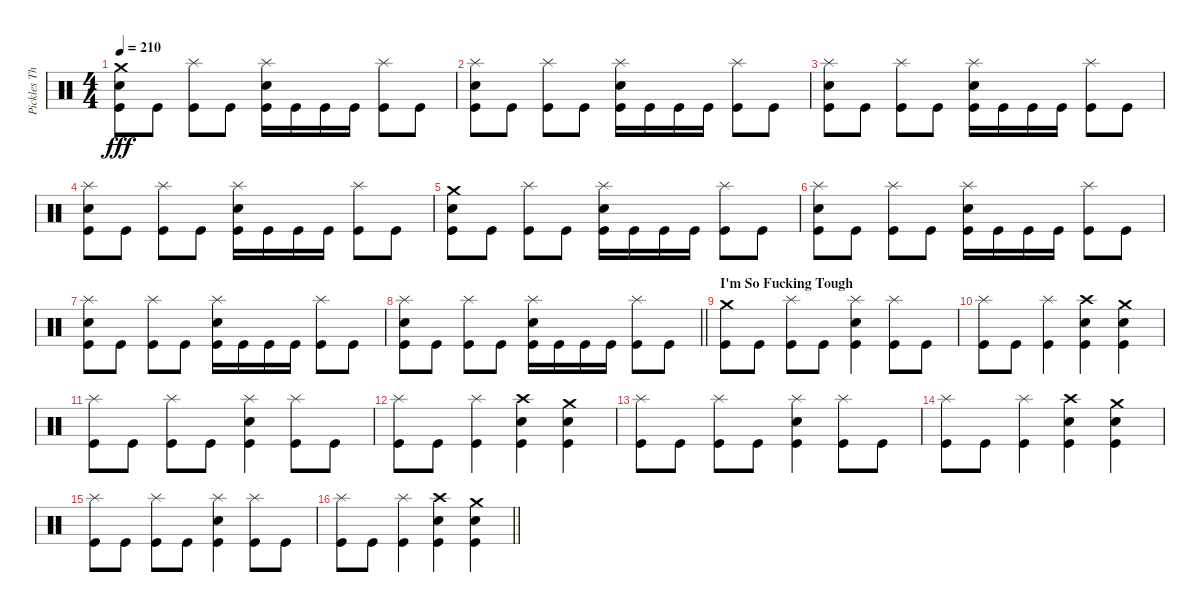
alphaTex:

\track ("Pickles The Drummer (Drums)" "Pickles Th") {instrument percussion}
\staff {score}
\articulation defaults
\ts (4 4)
\tempo 210
\clef neutral
\ks c
("Crash medium (hit)" "Snare (hit) 2" "Kick (hit)").8{dy fff} "Kick (hit)".8 ("Splash (hit)" "Kick (hit)").8 "Kick (hit)".8 ("Splash (hit)" "Snare (hit) 2" "Kick (hit)").16 "Kick (hit)".16 "Kick (hit)".16 "Kick (hit)".16 ("Splash (hit)" "Kick (hit)").8 "Kick (hit)".8 |
("Splash (hit)" "Snare (hit) 2" "Kick (hit)").8 "Kick (hit)".8 ("Splash (hit)" "Kick (hit)").8 "Kick (hit)".8 ("Splash (hit)" "Snare (hit) 2" "Kick (hit)").16 "Kick (hit)".16 "Kick (hit)".16 "Kick (hit)".16 ("Splash (hit)" "Kick (hit)").8 "Kick (hit)".8 |
("Splash (hit)" "Snare (hit) 2" "Kick (hit)").8 "Kick (hit)".8 ("Splash (hit)" "Kick (hit)").8 "Kick (hit)".8 ("Splash (hit)" "Snare (hit) 2" "Kick (hit)").16 "Kick (hit)".16 "Kick (hit)".16 "Kick (hit)".16 ("Splash (hit)" "Kick (hit)").8 "Kick (hit)".8 |
("Splash (hit)" "Snare (hit) 2" "Kick (hit)").8 "Kick (hit)".8 ("Splash (hit)" "Kick (hit)").8 "Kick (hit)".8 ("Splash (hit)" "Snare (hit) 2" "Kick (hit)").16 "Kick (hit)".16 "Kick (hit)".16 "Kick (hit)".16 ("Splash (hit)" "Kick (hit)").8 "Kick (hit)".8 |
("Crash medium (hit)" "Snare (hit) 2" "Kick (hit)").8 "Kick (hit)".8 ("Splash (hit)" "Kick (hit)").8 "Kick (hit)".8 ("Splash (hit)" "Snare (hit) 2" "Kick (hit)").16 "Kick (hit)".16 "Kick (hit)".16 "Kick (hit)".16 ("Splash (hit)" "Kick (hit)").8 "Kick (hit)".8 |
("Splash (hit)" "Snare (hit) 2" "Kick (hit)").8 "Kick (hit)".8 ("Splash (hit)" "Kick (hit)").8 "Kick (hit)".8 ("Splash (hit)" "Snare (hit) 2" "Kick (hit)").16 "Kick (hit)".16 "Kick (hit)".16 "Kick (hit)".16 ("Splash (hit)" "Kick (hit)").8 "Kick (hit)".8 |
("Splash (hit)" "Snare (hit) 2" "Kick (hit)").8 "Kick (hit)".8 ("Splash (hit)" "Kick (hit)").8 "Kick (hit)".8 ("Splash (hit)" "Snare (hit) 2" "Kick (hit)").16 "Kick (hit)".16 "Kick (hit)".16 "Kick (hit)".16 ("Splash (hit)" "Kick (hit)").8 "Kick (hit)".8 |
\barLineRight lightlight
("Splash (hit)" "Snare (hit) 2" "Kick (hit)").8 "Kick (hit)".8 ("Splash (hit)" "Kick (hit)").8 "Kick (hit)".8 ("Splash (hit)" "Snare (hit) 2" "Kick (hit)").16 "Kick (hit)".16 "Kick (hit)".16 "Kick (hit)".16 ("Splash (hit)" "Kick (hit)").8 "Kick (hit)".8 |
\section ("" "I'm So Fucking Tough")
("Crash medium (hit)" "Kick (hit)").8 "Kick (hit)".8 ("Splash (hit)" "Kick (hit)").8 "Kick (hit)".8 ("Splash (hit)" "Snare (hit) 2" "Kick (hit)").4 ("Splash (hit)" "Kick (hit)").8 "Kick (hit)".8 |
("Splash (hit)" "Kick (hit)").8 "Kick (hit)".8 ("Splash (hit)" "Kick (hit)").4 ("Crash high (hit)" "Snare (hit) 2" "Kick (hit)").4 ("Crash medium (hit)" "Snare (hit) 2" "Kick (hit)").4 |
("Splash (hit)" "Kick (hit)").8 "Kick (hit)".8 ("Splash (hit)" "Kick (hit)").8 "Kick (hit)".8 ("Splash (hit)" "Snare (hit) 2" "Kick (hit)").4 ("Splash (hit)" "Kick (hit)").8 "Kick (hit)".8 |
("Splash (hit)" "Kick (hit)").8 "Kick (hit)".8 ("Splash (hit)" "Kick (hit)").4 ("Crash high (hit)" "Snare (hit) 2" "Kick (hit)").4 ("Crash medium (hit)" "Snare (hit) 2" "Kick (hit)").4 |
("Splash (hit)" "Kick (hit)").8 "Kick (hit)".8 ("Splash (hit)" "Kick (hit)").8 "Kick (hit)".8 ("Splash (hit)" "Snare (hit) 2" "Kick (hit)").4 ("Splash (hit)" "Kick (hit)").8 "Kick (hit)".8 |
("Splash (hit)" "Kick (hit)").8 "Kick (hit)".8 ("Splash (hit)" "Kick (hit)").4 ("Crash high (hit)" "Snare (hit) 2" "Kick (hit)").4 ("Crash medium (hit)" "Snare (hit) 2" "Kick (hit)").4 |
("Splash (hit)" "Kick (hit)").8 "Kick (hit)".8 ("Splash (hit)" "Kick (hit)").8 "Kick (hit)".8 ("Splash (hit)" "Snare (hit) 2" "Kick (hit)").4 ("Splash (hit)" "Kick (hit)").8 "Kick (hit)".8 |
\barLineRight lightlight
("Splash (hit)" "Kick (hit)").8 "Kick (hit)".8 ("Splash (hit)" "Kick (hit)").4 ("Crash high (hit)" "Snare (hit) 2" "Kick (hit)").4 ("Crash medium (hit)" "Snare (hit) 2" "Kick (hit)").4
